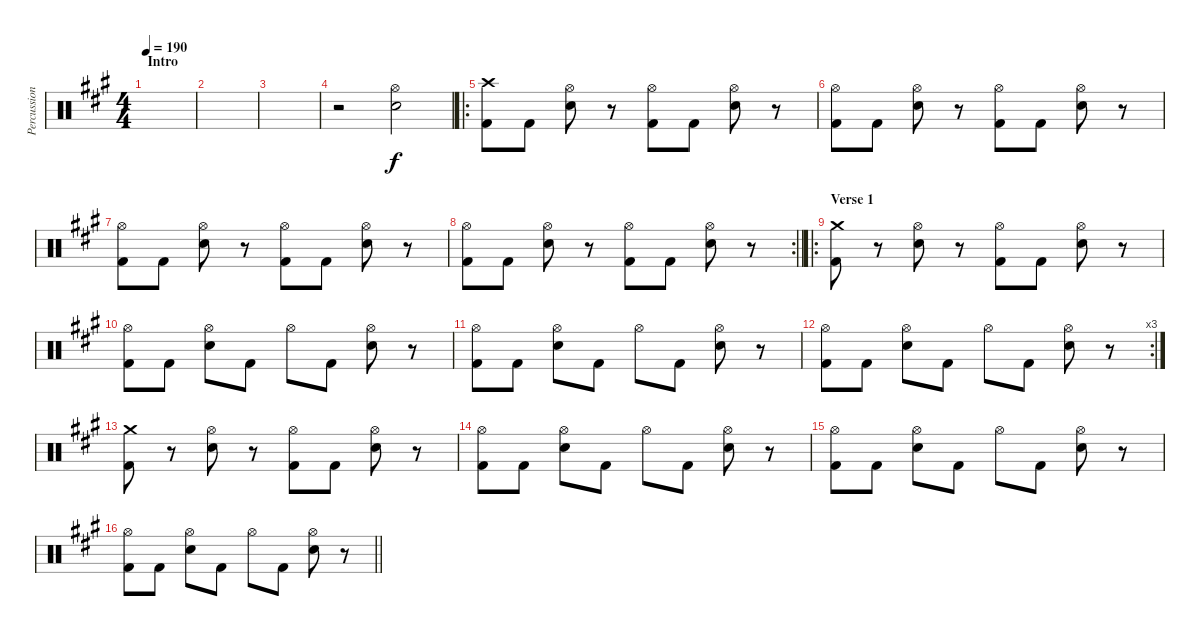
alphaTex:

\track ("Percussion" "Percussion") {instrument percussion}
\staff {score}
\articulation defaults
\ts (4 4)
\section ("" "Intro")
\tempo 190
\clef neutral
\ks a
|
|
|
r.2 ("Hi-Hat (open)" "Snare (hit) 2").2 |
\ro
("Crash high (hit)" "Kick (hit) 2").8 "Kick (hit) 2".8 ("Hi-Hat (open)" "Snare (hit) 2").8 r.8 ("Hi-Hat (open)" "Kick (hit) 2").8 "Kick (hit) 2".8 ("Hi-Hat (open)" "Snare (hit) 2").8 r.8 |
("Hi-Hat (open)" "Kick (hit) 2").8 "Kick (hit) 2".8 ("Hi-Hat (open)" "Snare (hit) 2").8 r.8 ("Hi-Hat (open)" "Kick (hit) 2").8 "Kick (hit) 2".8 ("Hi-Hat (open)" "Snare (hit) 2").8 r.8 |
("Hi-Hat (open)" "Kick (hit) 2").8 "Kick (hit) 2".8 ("Hi-Hat (open)" "Snare (hit) 2").8 r.8 ("Hi-Hat (open)" "Kick (hit) 2").8 "Kick (hit) 2".8 ("Hi-Hat (open)" "Snare (hit) 2").8 r.8 |
\rc 2
\barLineRight lightlight
("Hi-Hat (open)" "Kick (hit) 2").8 "Kick (hit) 2".8 ("Hi-Hat (open)" "Snare (hit) 2").8 r.8 ("Hi-Hat (open)" "Kick (hit) 2").8 "Kick (hit) 2".8 ("Hi-Hat (open)" "Snare (hit) 2").8 r.8 |
\ro
\section ("" "Verse 1")
("Crash medium (hit)" "Kick (hit) 2").8 r.8 ("Hi-Hat (open)" "Snare (hit) 2").8 r.8 ("Hi-Hat (open)" "Kick (hit) 2").8 "Kick (hit) 2".8 ("Hi-Hat (open)" "Snare (hit) 2").8 r.8 |
("Hi-Hat (open)" "Kick (hit) 2").8 "Kick (hit) 2".8 ("Hi-Hat (open)" "Snare (hit) 2").8 "Kick (hit) 2".8 "Hi-Hat (open)".8 "Kick (hit) 2".8 ("Hi-Hat (open)" "Snare (hit) 2").8 r.8 |
("Hi-Hat (open)" "Kick (hit) 2").8 "Kick (hit) 2".8 ("Hi-Hat (open)" "Snare (hit) 2").8 "Kick (hit) 2".8 "Hi-Hat (open)".8 "Kick (hit) 2".8 ("Hi-Hat (open)" "Snare (hit) 2").8 r.8 |
\rc 3
("Hi-Hat (open)" "Kick (hit) 2").8 "Kick (hit) 2".8 ("Hi-Hat (open)" "Snare (hit) 2").8 "Kick (hit) 2".8 "Hi-Hat (open)".8 "Kick (hit) 2".8 ("Hi-Hat (open)" "Snare (hit) 2").8 r.8 |
("Crash medium (hit)" "Kick (hit) 2").8 r.8 ("Hi-Hat (open)" "Snare (hit) 2").8 r.8 ("Hi-Hat (open)" "Kick (hit) 2").8 "Kick (hit) 2".8 ("Hi-Hat (open)" "Snare (hit) 2").8 r.8 |
("Hi-Hat (open)" "Kick (hit) 2").8 "Kick (hit) 2".8 ("Hi-Hat (open)" "Snare (hit) 2").8 "Kick (hit) 2".8 "Hi-Hat (open)".8 "Kick (hit) 2".8 ("Hi-Hat (open)" "Snare (hit) 2").8 r.8 |
("Hi-Hat (open)" "Kick (hit) 2").8 "Kick (hit) 2".8 ("Hi-Hat (open)" "Snare (hit) 2").8 "Kick (hit) 2".8 "Hi-Hat (open)".8 "Kick (hit) 2".8 ("Hi-Hat (open)" "Snare (hit) 2").8 r.8 |
\barLineRight lightlight
("Hi-Hat (open)" "Kick (hit) 2").8 "Kick (hit) 2".8 ("Hi-Hat (open)" "Snare (hit) 2").8 "Kick (hit) 2".8 "Hi-Hat (open)".8 "Kick (hit) 2".8 ("Hi-Hat (open)" "Snare (hit) 2").8 r.8
